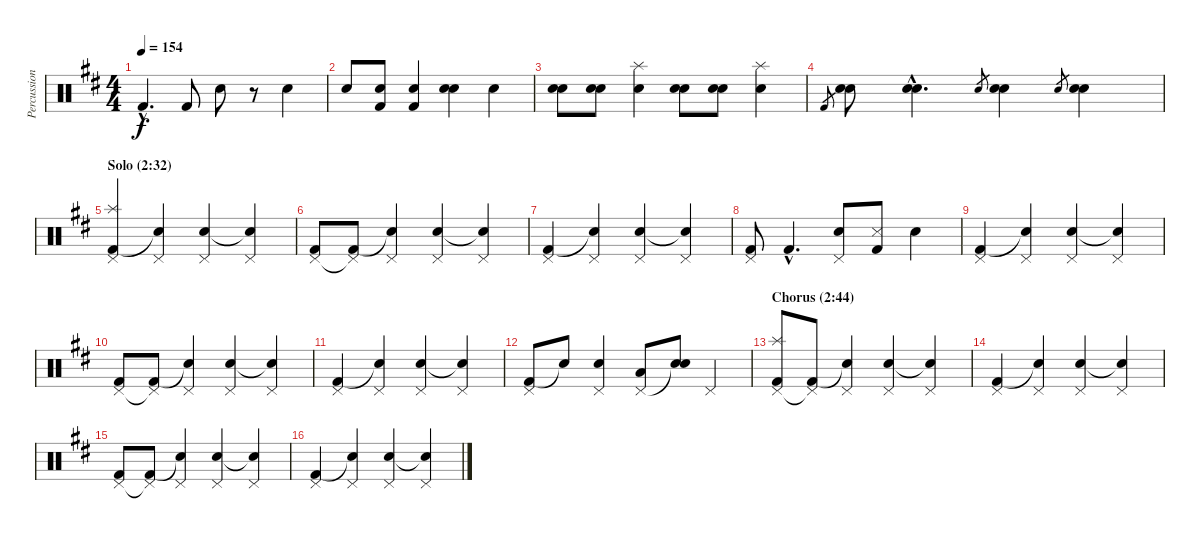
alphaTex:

\track ("Percussion" "Percussion") {instrument percussion}
\staff {score}
\articulation defaults
\ts (4 4)
\tempo 154
\clef neutral
\ks d "Kick (hit) 2"{hac}.4{d dy f} "Kick (hit) 2".8 "Electric Snare (hit)".8
r.8 "Metronome (bell)".4 |
"Metronome (bell)".8 ("Kick (hit) 2" "Snare (hit)"{t}).8 ("Kick (hit) 2" "Metronome (bell)").4 ("Electric Snare (hit)" "Metronome (bell)").4 "Metronome (bell)".4 |
("Snare (hit) 2" "Electric Snare (hit)").8 ("Snare (hit) 2" "Electric Snare (hit)").8 ("Splash (hit)" "Metronome (bell)").4 ("Snare (hit) 2" "Electric Snare (hit)").8 ("Snare (hit) 2" "Electric Snare (hit)").8 ("Splash (hit)" "Metronome (bell)").4 |
"Kick (hit) 2".8{gr} ("Snare (hit) 2" "Electric Snare (hit)").8 ("Snare (hit) 2"{hac} "Electric Snare (hit)"{hac}).4{d} "Electric Snare (hit)".8{gr} ("Snare (hit) 2" "Electric Snare (hit)").4 "Electric Snare (hit)".8{gr} ("Snare (hit) 2" "Electric Snare (hit)").4 |
\section ("" "Solo (2:32)")
("Kick (hit) 2" "Pedal Hi-Hat (hit)" "Splash (hit)").4 ("Snare (hit)"{t} "Pedal Hi-Hat (hit)").4 ("Electric Snare (hit)" "Pedal Hi-Hat (hit)").4 ("Snare (hit)"{t} "Pedal Hi-Hat (hit)").4 |
("Kick (hit) 2" "Pedal Hi-Hat (hit)").8 ("Kick (hit) 2" "Pedal Hi-Hat (hit)"{t}).8 ("Snare (hit)"{t} "Pedal Hi-Hat (hit)").4 ("Electric Snare (hit)" "Pedal Hi-Hat (hit)").4 ("Snare (hit) 2"{t} "Pedal Hi-Hat (hit)").4 |
("Kick (hit) 2" "Pedal Hi-Hat (hit)").4 ("Snare (hit)"{t} "Pedal Hi-Hat (hit)").4 ("Electric Snare (hit)" "Pedal Hi-Hat (hit)").4 ("Snare (hit)"{t} "Pedal Hi-Hat (hit)").4 |
("Kick (hit) 2" "Pedal Hi-Hat (hit)").8 "Kick (hit) 2"{hac}.4{d} ("Electric Snare (hit)" "Pedal Hi-Hat (hit)").8 ("Kick (hit) 2" "Snare (side stick) 3").8 "Electric Snare (hit)".4 |
("Kick (hit) 2" "Pedal Hi-Hat (hit)").4 ("Snare (hit)"{t} "Pedal Hi-Hat (hit)").4 ("Electric Snare (hit)" "Pedal Hi-Hat (hit)").4 ("Snare (hit)"{t} "Pedal Hi-Hat (hit)").4 |
("Kick (hit) 2" "Pedal Hi-Hat (hit)").8 ("Kick (hit) 2" "Pedal Hi-Hat (hit)"{t}).8 ("Snare (hit)"{t} "Pedal Hi-Hat (hit)").4 ("Electric Snare (hit)" "Pedal Hi-Hat (hit)").4 ("Snare (hit) 2"{t} "Pedal Hi-Hat (hit)").4 |
("Kick (hit) 2" "Pedal Hi-Hat (hit)").4 ("Snare (hit)"{t} "Pedal Hi-Hat (hit)").4 ("Electric Snare (hit)" "Pedal Hi-Hat (hit)").4 ("Snare (hit)"{t} "Pedal Hi-Hat (hit)").4 |
("Kick (hit) 2" "Pedal Hi-Hat (hit)").8 "Snare (hit)"{t}.8 ("Electric Snare (hit)" "Pedal Hi-Hat (hit)").4 ("Low Tom (hit)" "Pedal Hi-Hat (hit)").8 ("Electric Snare (hit)" "Snare (hit)"{t}).8 "Pedal Hi-Hat (hit)".4 |
\section ("" "Chorus (2:44)")
("Kick (hit) 2" "Pedal Hi-Hat (hit)" "Splash (hit)").8 ("Kick (hit) 2" "Pedal Hi-Hat (hit)"{t}).8 ("Snare (hit)"{t} "Pedal Hi-Hat (hit)").4 ("Electric Snare (hit)" "Pedal Hi-Hat (hit)").4 ("Snare (hit) 2"{t} "Pedal Hi-Hat (hit)").4 |
("Kick (hit) 2" "Pedal Hi-Hat (hit)").4 ("Snare (hit)"{t} "Pedal Hi-Hat (hit)").4 ("Electric Snare (hit)" "Pedal Hi-Hat (hit)").4 ("Snare (hit)"{t} "Pedal Hi-Hat (hit)").4 |
("Kick (hit) 2" "Pedal Hi-Hat (hit)").8 ("Kick (hit) 2" "Pedal Hi-Hat (hit)"{t}).8 ("Snare (hit)"{t} "Pedal Hi-Hat (hit)").4 ("Electric Snare (hit)" "Pedal Hi-Hat (hit)").4 ("Snare (hit) 2"{t} "Pedal Hi-Hat (hit)").4 |
("Kick (hit) 2" "Pedal Hi-Hat (hit)").4 ("Snare (hit)"{t} "Pedal Hi-Hat (hit)").4 ("Electric Snare (hit)" "Pedal Hi-Hat (hit)").4 ("Snare (hit)"{t} "Pedal Hi-Hat (hit)").4
